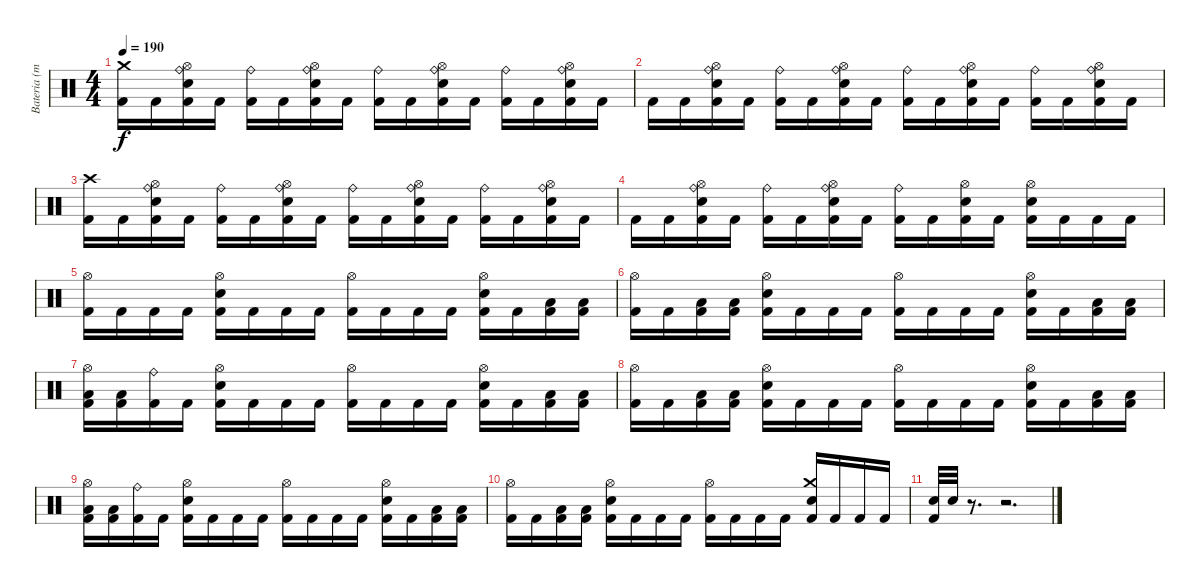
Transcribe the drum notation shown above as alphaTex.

\track ("Bateria (mestre Aquiles Priester)" "Bateria (m") {instrument percussion}
\staff {score}
\articulation defaults
\ts (4 4)
\tempo 190
\clef neutral
\ks c
("Kick (hit) 2" "Crash medium (hit)").16{dy f} "Kick (hit) 2".16 ("Kick (hit) 2" "Electric Snare (hit)" "Hi-Hat (open)" "Ride (bell)").16 "Kick (hit) 2".16 ("Kick (hit) 2" "Ride (bell)").16 "Kick (hit) 2".16 ("Kick (hit) 2" "Electric Snare (hit)" "Hi-Hat (open)" "Ride (bell)").16 "Kick (hit) 2".16 ("Kick (hit) 2" "Ride (bell)").16 "Kick (hit) 2".16 ("Kick (hit) 2" "Electric Snare (hit)" "Hi-Hat (open)" "Ride (bell)").16 "Kick (hit) 2".16 ("Kick (hit) 2" "Ride (bell)").16 "Kick (hit) 2".16 ("Kick (hit) 2" "Electric Snare (hit)" "Hi-Hat (open)" "Ride (bell)").16 "Kick (hit) 2".16 |
"Kick (hit) 2".16 "Kick (hit) 2".16 ("Kick (hit) 2" "Electric Snare (hit)" "Hi-Hat (open)" "Ride (bell)").16 "Kick (hit) 2".16 ("Kick (hit) 2" "Ride (bell)").16 "Kick (hit) 2".16 ("Kick (hit) 2" "Electric Snare (hit)" "Hi-Hat (open)" "Ride (bell)").16 "Kick (hit) 2".16 ("Kick (hit) 2" "Ride (bell)").16 "Kick (hit) 2".16 ("Kick (hit) 2" "Electric Snare (hit)" "Hi-Hat (open)" "Ride (bell)").16 "Kick (hit) 2".16 ("Kick (hit) 2" "Ride (bell)").16 "Kick (hit) 2".16 ("Kick (hit) 2" "Electric Snare (hit)" "Hi-Hat (open)" "Ride (bell)").16 "Kick (hit) 2".16 |
("Kick (hit) 2" "Crash high (hit)").16 "Kick (hit) 2".16 ("Kick (hit) 2" "Electric Snare (hit)" "Hi-Hat (open)" "Ride (bell)").16 "Kick (hit) 2".16 ("Kick (hit) 2" "Ride (bell)").16 "Kick (hit) 2".16 ("Kick (hit) 2" "Electric Snare (hit)" "Hi-Hat (open)" "Ride (bell)").16 "Kick (hit) 2".16 ("Kick (hit) 2" "Ride (bell)").16 "Kick (hit) 2".16 ("Kick (hit) 2" "Electric Snare (hit)" "Hi-Hat (open)" "Ride (bell)").16 "Kick (hit) 2".16 ("Kick (hit) 2" "Ride (bell)").16 "Kick (hit) 2".16 ("Kick (hit) 2" "Electric Snare (hit)" "Hi-Hat (open)" "Ride (bell)").16 "Kick (hit) 2".16 |
"Kick (hit) 2".16 "Kick (hit) 2".16 ("Kick (hit) 2" "Electric Snare (hit)" "Hi-Hat (open)" "Ride (bell)").16 "Kick (hit) 2".16 ("Kick (hit) 2" "Ride (bell)").16 "Kick (hit) 2".16 ("Kick (hit) 2" "Electric Snare (hit)" "Hi-Hat (open)" "Ride (bell)").16 "Kick (hit) 2".16 ("Kick (hit) 2" "Ride (bell)").16 "Kick (hit) 2".16 ("Kick (hit) 2" "Electric Snare (hit)" "Hi-Hat (open)").16 "Kick (hit) 2".16 ("Kick (hit) 2" "Electric Snare (hit)" "Hi-Hat (open)").16 "Kick (hit) 2".16 "Kick (hit) 2".16 "Kick (hit) 2".16 |
("Kick (hit) 2" "Hi-Hat (open)").16 "Kick (hit) 2".16 "Kick (hit) 2".16 "Kick (hit) 2".16 ("Kick (hit) 2" "Electric Snare (hit)" "Hi-Hat (open)").16 "Kick (hit) 2".16 "Kick (hit) 2".16 "Kick (hit) 2".16 ("Kick (hit) 2" "Hi-Hat (open)").16 "Kick (hit) 2".16 "Kick (hit) 2".16 "Kick (hit) 2".16 ("Kick (hit) 2" "Electric Snare (hit)" "Hi-Hat (open)").16 "Kick (hit) 2".16 ("Kick (hit) 2" "Low Tom (hit)").16 ("Kick (hit) 2" "Low Tom (hit)").16 |
("Kick (hit) 2" "Hi-Hat (open)").16 "Kick (hit) 2".16 ("Kick (hit) 2" "Low Tom (hit)").16 ("Kick (hit) 2" "Low Tom (hit)").16 ("Kick (hit) 2" "Electric Snare (hit)" "Hi-Hat (open)").16 "Kick (hit) 2".16 "Kick (hit) 2".16 "Kick (hit) 2".16 ("Kick (hit) 2" "Hi-Hat (open)").16 "Kick (hit) 2".16 "Kick (hit) 2".16 "Kick (hit) 2".16 ("Kick (hit) 2" "Electric Snare (hit)" "Hi-Hat (open)").16 "Kick (hit) 2".16 ("Kick (hit) 2" "Low Tom (hit)").16 ("Kick (hit) 2" "Low Tom (hit)").16 |
("Kick (hit) 2" "Low Tom (hit)" "Hi-Hat (open)").16 ("Kick (hit) 2" "Low Tom (hit)").16 ("Kick (hit) 2" "Ride (bell)").16 "Kick (hit) 2".16 ("Kick (hit) 2" "Electric Snare (hit)" "Hi-Hat (open)").16 "Kick (hit) 2".16 "Kick (hit) 2".16 "Kick (hit) 2".16 ("Kick (hit) 2" "Hi-Hat (open)").16 "Kick (hit) 2".16 "Kick (hit) 2".16 "Kick (hit) 2".16 ("Kick (hit) 2" "Electric Snare (hit)" "Hi-Hat (open)").16 "Kick (hit) 2".16 ("Kick (hit) 2" "Low Tom (hit)").16 ("Kick (hit) 2" "Low Tom (hit)").16 |
("Kick (hit) 2" "Hi-Hat (open)").16 "Kick (hit) 2".16 ("Kick (hit) 2" "Low Tom (hit)").16 ("Kick (hit) 2" "Low Tom (hit)").16 ("Kick (hit) 2" "Electric Snare (hit)" "Hi-Hat (open)").16 "Kick (hit) 2".16 "Kick (hit) 2".16 "Kick (hit) 2".16 ("Kick (hit) 2" "Hi-Hat (open)").16 "Kick (hit) 2".16 "Kick (hit) 2".16 "Kick (hit) 2".16 ("Kick (hit) 2" "Electric Snare (hit)" "Hi-Hat (open)").16 "Kick (hit) 2".16 ("Kick (hit) 2" "Low Tom (hit)").16 ("Kick (hit) 2" "Low Tom (hit)").16 |
("Kick (hit) 2" "Low Tom (hit)" "Hi-Hat (open)").16 ("Kick (hit) 2" "Low Tom (hit)").16 ("Kick (hit) 2" "Ride (bell)").16 "Kick (hit) 2".16 ("Kick (hit) 2" "Electric Snare (hit)" "Hi-Hat (open)").16 "Kick (hit) 2".16 "Kick (hit) 2".16 "Kick (hit) 2".16 ("Kick (hit) 2" "Hi-Hat (open)").16 "Kick (hit) 2".16 "Kick (hit) 2".16 "Kick (hit) 2".16 ("Kick (hit) 2" "Electric Snare (hit)" "Hi-Hat (open)").16 "Kick (hit) 2".16 ("Kick (hit) 2" "Low Tom (hit)").16 ("Kick (hit) 2" "Low Tom (hit)").16 |
("Kick (hit) 2" "Hi-Hat (open)").16 "Kick (hit) 2".16 ("Kick (hit) 2" "Low Tom (hit)").16 ("Kick (hit) 2" "Low Tom (hit)").16 ("Kick (hit) 2" "Electric Snare (hit)" "Hi-Hat (open)").16 "Kick (hit) 2".16 "Kick (hit) 2".16 "Kick (hit) 2".16 ("Kick (hit) 2" "Hi-Hat (open)").16 "Kick (hit) 2".16 "Kick (hit) 2".16 "Kick (hit) 2".16 ("Kick (hit) 2" "Electric Snare (hit)" "Crash medium (hit)").16 "Kick (hit) 2".16 "Kick (hit) 2".16 "Kick (hit) 2".16 |
("Kick (hit) 2" "Electric Snare (hit)").32 "Electric Snare (hit)".32 r.8{d} r.2{d}
